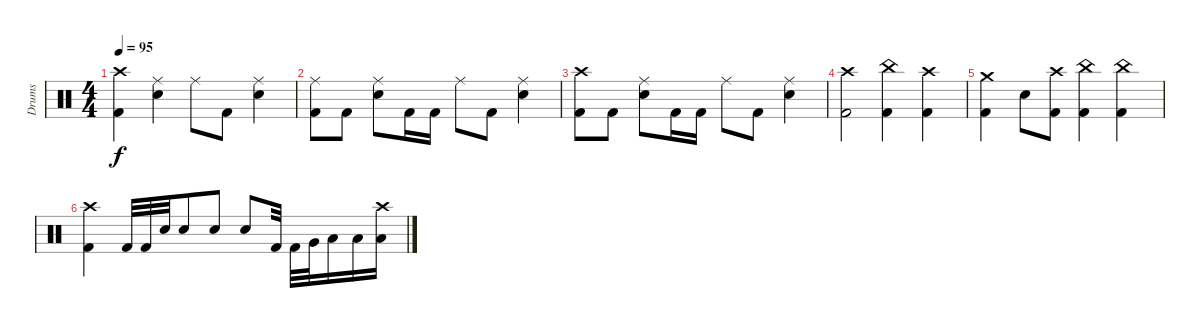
\track ("Drums" "Drums") {instrument percussion}
\staff {score}
\articulation defaults
\ts (4 4)
\tempo 95
\clef neutral
\ks c
("Crash high (hit)" "Kick (hit) 2").4{dy f} ("Ride (middle)" "Snare (hit) 2").4 "Ride (middle)".8 "Kick (hit) 2".8 ("Ride (middle)" "Snare (hit) 2").4 |
("Ride (middle)" "Kick (hit) 2").8 "Kick (hit) 2".8 ("Ride (middle)" "Snare (hit) 2").8 "Kick (hit) 2".16 "Kick (hit) 2".16 "Ride (middle)".8 "Kick (hit) 2".8 ("Ride (middle)" "Snare (hit) 2").4 |
("Crash high (hit)" "Kick (hit) 2").8 "Kick (hit) 2".8 ("Ride (middle)" "Snare (hit) 2").8 "Kick (hit) 2".16 "Kick (hit) 2".16 "Ride (middle)".8 "Kick (hit) 2".8 ("Ride (middle)" "Snare (hit) 2").4 |
("Crash high (hit)" "Kick (hit) 2").2 ("China (hit)" "Kick (hit) 2").4 ("Crash high (hit)" "Kick (hit) 2").4 |
("Crash medium (hit)" "Kick (hit) 2").4 "Snare (hit) 2".8 ("Crash high (hit)" "Kick (hit) 2").8 ("China (hit)" "Kick (hit) 2").4 ("China (hit)" "Kick (hit) 2").4 |
("Crash high (hit)" "Kick (hit) 2").4 "Kick (hit) 2".32 "Kick (hit) 2".32 "Snare (hit) 2".32 "Snare (hit) 2".8 "Snare (hit) 2".8 "Snare (hit) 2".8 "Kick (hit) 2".32 "Kick (hit) 2".32 "Very Low Tom (hit)".32 "Low Tom (hit)".16 "Low Tom (hit)".16 ("Crash high (hit)" "Low Tom (hit)").16
